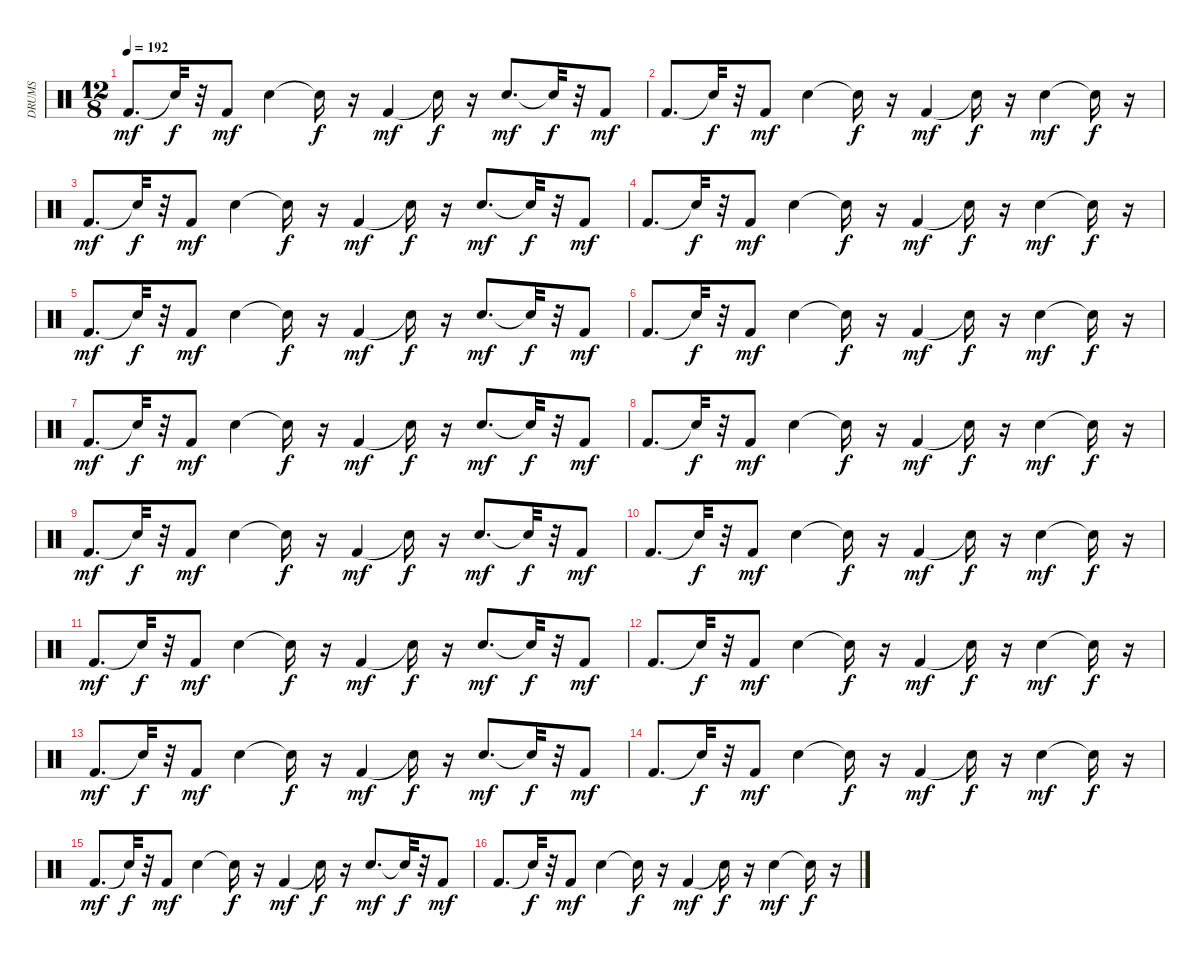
\track ("DRUMS" "DRUMS") {instrument percussion}
\staff {score}
\articulation defaults
\ts (12 8)
\tempo 192
\clef neutral
\ks c "Kick (hit) 2".8{d dy mf} "Snare (hit)"{t}.32{dy f}
r.32 "Kick (hit) 2".8{dy mf} "Snare (hit) 2".4 "Snare (hit)"{t}.16{dy f} r.16 "Kick (hit) 2".4{dy mf} "Snare (hit)"{t}.16{dy f} r.16 "Snare (hit) 2".8{d dy mf} "Snare (hit)"{t}.32{dy f} r.32 "Kick (hit) 2".8{dy mf} |
"Kick (hit) 2".8{d} "Snare (hit)"{t}.32{dy f} r.32 "Kick (hit) 2".8{dy mf} "Snare (hit) 2".4 "Snare (hit)"{t}.16{dy f} r.16 "Kick (hit) 2".4{dy mf} "Snare (hit)"{t}.16{dy f} r.16 "Snare (hit) 2".4{dy mf} "Snare (hit)"{t}.16{dy f} r.16 |
"Kick (hit) 2".8{d dy mf} "Snare (hit)"{t}.32{dy f} r.32 "Kick (hit) 2".8{dy mf} "Snare (hit) 2".4 "Snare (hit)"{t}.16{dy f} r.16 "Kick (hit) 2".4{dy mf} "Snare (hit)"{t}.16{dy f} r.16 "Snare (hit) 2".8{d dy mf} "Snare (hit)"{t}.32{dy f} r.32 "Kick (hit) 2".8{dy mf} |
"Kick (hit) 2".8{d} "Snare (hit)"{t}.32{dy f} r.32 "Kick (hit) 2".8{dy mf} "Snare (hit) 2".4 "Snare (hit)"{t}.16{dy f} r.16 "Kick (hit) 2".4{dy mf} "Snare (hit)"{t}.16{dy f} r.16 "Snare (hit) 2".4{dy mf} "Snare (hit)"{t}.16{dy f} r.16 |
"Kick (hit) 2".8{d dy mf} "Snare (hit)"{t}.32{dy f} r.32 "Kick (hit) 2".8{dy mf} "Snare (hit) 2".4 "Snare (hit)"{t}.16{dy f} r.16 "Kick (hit) 2".4{dy mf} "Snare (hit)"{t}.16{dy f} r.16 "Snare (hit) 2".8{d dy mf} "Snare (hit)"{t}.32{dy f} r.32 "Kick (hit) 2".8{dy mf} |
"Kick (hit) 2".8{d} "Snare (hit)"{t}.32{dy f} r.32 "Kick (hit) 2".8{dy mf} "Snare (hit) 2".4 "Snare (hit)"{t}.16{dy f} r.16 "Kick (hit) 2".4{dy mf} "Snare (hit)"{t}.16{dy f} r.16 "Snare (hit) 2".4{dy mf} "Snare (hit)"{t}.16{dy f} r.16 |
"Kick (hit) 2".8{d dy mf} "Snare (hit)"{t}.32{dy f} r.32 "Kick (hit) 2".8{dy mf} "Snare (hit) 2".4 "Snare (hit)"{t}.16{dy f} r.16 "Kick (hit) 2".4{dy mf} "Snare (hit)"{t}.16{dy f} r.16 "Snare (hit) 2".8{d dy mf} "Snare (hit)"{t}.32{dy f} r.32 "Kick (hit) 2".8{dy mf} |
"Kick (hit) 2".8{d} "Snare (hit)"{t}.32{dy f} r.32 "Kick (hit) 2".8{dy mf} "Snare (hit) 2".4 "Snare (hit)"{t}.16{dy f} r.16 "Kick (hit) 2".4{dy mf} "Snare (hit)"{t}.16{dy f} r.16 "Snare (hit) 2".4{dy mf} "Snare (hit)"{t}.16{dy f} r.16 |
"Kick (hit) 2".8{d dy mf} "Snare (hit)"{t}.32{dy f} r.32 "Kick (hit) 2".8{dy mf} "Snare (hit) 2".4 "Snare (hit)"{t}.16{dy f} r.16 "Kick (hit) 2".4{dy mf} "Snare (hit)"{t}.16{dy f} r.16 "Snare (hit) 2".8{d dy mf} "Snare (hit)"{t}.32{dy f} r.32 "Kick (hit) 2".8{dy mf} |
"Kick (hit) 2".8{d} "Snare (hit)"{t}.32{dy f} r.32 "Kick (hit) 2".8{dy mf} "Snare (hit) 2".4 "Snare (hit)"{t}.16{dy f} r.16 "Kick (hit) 2".4{dy mf} "Snare (hit)"{t}.16{dy f} r.16 "Snare (hit) 2".4{dy mf} "Snare (hit)"{t}.16{dy f} r.16 |
"Kick (hit) 2".8{d dy mf} "Snare (hit)"{t}.32{dy f} r.32 "Kick (hit) 2".8{dy mf} "Snare (hit) 2".4 "Snare (hit)"{t}.16{dy f} r.16 "Kick (hit) 2".4{dy mf} "Snare (hit)"{t}.16{dy f} r.16 "Snare (hit) 2".8{d dy mf} "Snare (hit)"{t}.32{dy f} r.32 "Kick (hit) 2".8{dy mf} |
"Kick (hit) 2".8{d} "Snare (hit)"{t}.32{dy f} r.32 "Kick (hit) 2".8{dy mf} "Snare (hit) 2".4 "Snare (hit)"{t}.16{dy f} r.16 "Kick (hit) 2".4{dy mf} "Snare (hit)"{t}.16{dy f} r.16 "Snare (hit) 2".4{dy mf} "Snare (hit)"{t}.16{dy f} r.16 |
"Kick (hit) 2".8{d dy mf} "Snare (hit)"{t}.32{dy f} r.32 "Kick (hit) 2".8{dy mf} "Snare (hit) 2".4 "Snare (hit)"{t}.16{dy f} r.16 "Kick (hit) 2".4{dy mf} "Snare (hit)"{t}.16{dy f} r.16 "Snare (hit) 2".8{d dy mf} "Snare (hit)"{t}.32{dy f} r.32 "Kick (hit) 2".8{dy mf} |
"Kick (hit) 2".8{d} "Snare (hit)"{t}.32{dy f} r.32 "Kick (hit) 2".8{dy mf} "Snare (hit) 2".4 "Snare (hit)"{t}.16{dy f} r.16 "Kick (hit) 2".4{dy mf} "Snare (hit)"{t}.16{dy f} r.16 "Snare (hit) 2".4{dy mf} "Snare (hit)"{t}.16{dy f} r.16 |
"Kick (hit) 2".8{d dy mf} "Snare (hit)"{t}.32{dy f} r.32 "Kick (hit) 2".8{dy mf} "Snare (hit) 2".4 "Snare (hit)"{t}.16{dy f} r.16 "Kick (hit) 2".4{dy mf} "Snare (hit)"{t}.16{dy f} r.16 "Snare (hit) 2".8{d dy mf} "Snare (hit)"{t}.32{dy f} r.32 "Kick (hit) 2".8{dy mf} |
"Kick (hit) 2".8{d} "Snare (hit)"{t}.32{dy f} r.32 "Kick (hit) 2".8{dy mf} "Snare (hit) 2".4 "Snare (hit)"{t}.16{dy f} r.16 "Kick (hit) 2".4{dy mf} "Snare (hit)"{t}.16{dy f} r.16 "Snare (hit) 2".4{dy mf} "Snare (hit)"{t}.16{dy f} r.16
